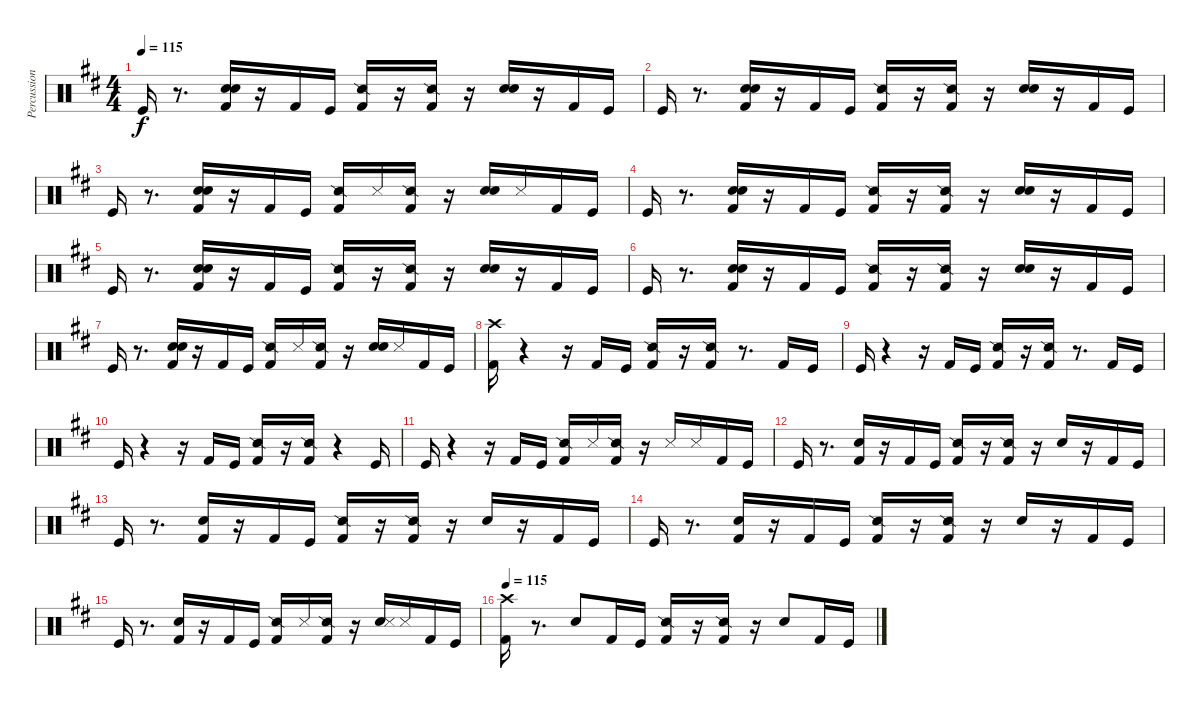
\track ("Percussions" "Percussion") {instrument percussion}
\staff {score}
\articulation defaults
\ts (4 4)
\tempo 115
\clef neutral
\ks bminor "Kick (hit)".16{dy f}
r.8{d} ("Hand Clap (hit)" "Snare (hit) 2" "Kick (hit) 2").16 r.16 "Kick (hit) 2".16 "Kick (hit)".16 ("Kick (hit) 2" "Snare (side stick) 2").16 r.16 ("Kick (hit) 2" "Snare (side stick) 2").16 r.16 ("Hand Clap (hit)" "Snare (hit) 2").16 r.16 "Kick (hit) 2".16 "Kick (hit)".16 |
"Kick (hit)".16 r.8{d} ("Hand Clap (hit)" "Snare (hit) 2" "Kick (hit) 2").16 r.16 "Kick (hit) 2".16 "Kick (hit)".16 ("Kick (hit) 2" "Snare (side stick) 2").16 r.16 ("Kick (hit) 2" "Snare (side stick) 2").16 r.16 ("Hand Clap (hit)" "Snare (hit) 2").16 r.16 "Kick (hit) 2".16 "Kick (hit)".16 |
"Kick (hit)".16 r.8{d} ("Hand Clap (hit)" "Snare (hit) 2" "Kick (hit) 2").16 r.16 "Kick (hit) 2".16 "Kick (hit)".16 ("Kick (hit) 2" "Snare (side stick) 2").16 "Metronome (hit)".16 ("Kick (hit) 2" "Snare (side stick) 2").16 r.16 ("Hand Clap (hit)" "Snare (hit) 2").16 "Metronome (hit)".16 "Kick (hit) 2".16 "Kick (hit)".16 |
"Kick (hit)".16 r.8{d} ("Hand Clap (hit)" "Snare (hit) 2" "Kick (hit) 2").16 r.16 "Kick (hit) 2".16 "Kick (hit)".16 ("Kick (hit) 2" "Snare (side stick) 2").16 r.16 ("Kick (hit) 2" "Snare (side stick) 2").16 r.16 ("Hand Clap (hit)" "Snare (hit) 2").16 r.16 "Kick (hit) 2".16 "Kick (hit)".16 |
"Kick (hit)".16 r.8{d} ("Hand Clap (hit)" "Snare (hit) 2" "Kick (hit) 2").16 r.16 "Kick (hit) 2".16 "Kick (hit)".16 ("Kick (hit) 2" "Snare (side stick) 2").16 r.16 ("Kick (hit) 2" "Snare (side stick) 2").16 r.16 ("Hand Clap (hit)" "Snare (hit) 2").16 r.16 "Kick (hit) 2".16 "Kick (hit)".16 |
"Kick (hit)".16 r.8{d} ("Hand Clap (hit)" "Snare (hit) 2" "Kick (hit) 2").16 r.16 "Kick (hit) 2".16 "Kick (hit)".16 ("Kick (hit) 2" "Snare (side stick) 2").16 r.16 ("Kick (hit) 2" "Snare (side stick) 2").16 r.16 ("Hand Clap (hit)" "Snare (hit) 2").16 r.16 "Kick (hit) 2".16 "Kick (hit)".16 |
"Kick (hit)".16 r.8{d} ("Hand Clap (hit)" "Snare (hit) 2" "Kick (hit) 2").16 r.16 "Kick (hit) 2".16 "Kick (hit)".16 ("Kick (hit) 2" "Snare (side stick) 2").16 "Metronome (hit)".16 ("Kick (hit) 2" "Snare (side stick) 2").16 r.16 ("Hand Clap (hit)" "Snare (hit) 2").16 "Metronome (hit)".16 "Kick (hit) 2".16 "Kick (hit)".16 |
("Crash high (hit)" "Kick (hit) 2").16 r.4 r.16 "Kick (hit) 2".16 "Kick (hit)".16 ("Kick (hit) 2" "Snare (side stick) 2").16 r.16 ("Kick (hit) 2" "Snare (side stick) 2").16 r.8{d} "Kick (hit) 2".16 "Kick (hit)".16 |
"Kick (hit)".16 r.4 r.16 "Kick (hit) 2".16 "Kick (hit)".16 ("Kick (hit) 2" "Snare (side stick) 2").16 r.16 ("Kick (hit) 2" "Snare (side stick) 2").16 r.8{d} "Kick (hit) 2".16 "Kick (hit)".16 |
"Kick (hit)".16 r.4 r.16 "Kick (hit) 2".16 "Kick (hit)".16 ("Kick (hit) 2" "Snare (side stick) 2").16 r.16 ("Kick (hit) 2" "Snare (side stick) 2").16 r.4 "Kick (hit)".16 |
"Kick (hit)".16 r.4 r.16 "Kick (hit) 2".16 "Kick (hit)".16 ("Kick (hit) 2" "Snare (side stick) 2").16 "Metronome (hit)".16 ("Kick (hit) 2" "Snare (side stick) 2").16 r.16 "Snare (side stick) 3".16 "Metronome (hit)".16 "Kick (hit) 2".16 "Kick (hit)".16 |
"Kick (hit)".16 r.8{d} ("Hand Clap (hit)" "Kick (hit) 2").16 r.16 "Kick (hit) 2".16 "Kick (hit)".16 ("Kick (hit) 2" "Snare (side stick) 2").16 r.16 ("Kick (hit) 2" "Snare (side stick) 2").16 r.16 "Hand Clap (hit)".16 r.16 "Kick (hit) 2".16 "Kick (hit)".16 |
"Kick (hit)".16 r.8{d} ("Hand Clap (hit)" "Kick (hit) 2").16 r.16 "Kick (hit) 2".16 "Kick (hit)".16 ("Kick (hit) 2" "Snare (side stick) 2").16 r.16 ("Kick (hit) 2" "Snare (side stick) 2").16 r.16 "Hand Clap (hit)".16 r.16 "Kick (hit) 2".16 "Kick (hit)".16 |
"Kick (hit)".16 r.8{d} ("Hand Clap (hit)" "Kick (hit) 2").16 r.16 "Kick (hit) 2".16 "Kick (hit)".16 ("Kick (hit) 2" "Snare (side stick) 2").16 r.16 ("Kick (hit) 2" "Snare (side stick) 2").16 r.16 "Hand Clap (hit)".16 r.16 "Kick (hit) 2".16 "Kick (hit)".16 |
"Kick (hit)".16 r.8{d} ("Hand Clap (hit)" "Kick (hit) 2").16 r.16 "Kick (hit) 2".16 "Kick (hit)".16 ("Kick (hit) 2" "Snare (side stick) 2").16 "Metronome (hit)".16 ("Kick (hit) 2" "Snare (side stick) 2").16 r.16 ("Hand Clap (hit)" "Snare (side stick) 3").16 "Metronome (hit)".16 "Kick (hit) 2".16 "Kick (hit)".16 |
\tempo 115
("Crash high (hit)" "Kick (hit) 2").16 r.8{d} "Hand Clap (hit)".8 "Kick (hit) 2".16 "Kick (hit)".16 ("Kick (hit) 2" "Snare (side stick) 2").16 r.16 ("Kick (hit) 2" "Snare (side stick) 2").16 r.16 "Hand Clap (hit)".8 "Kick (hit) 2".16 "Kick (hit)".16
